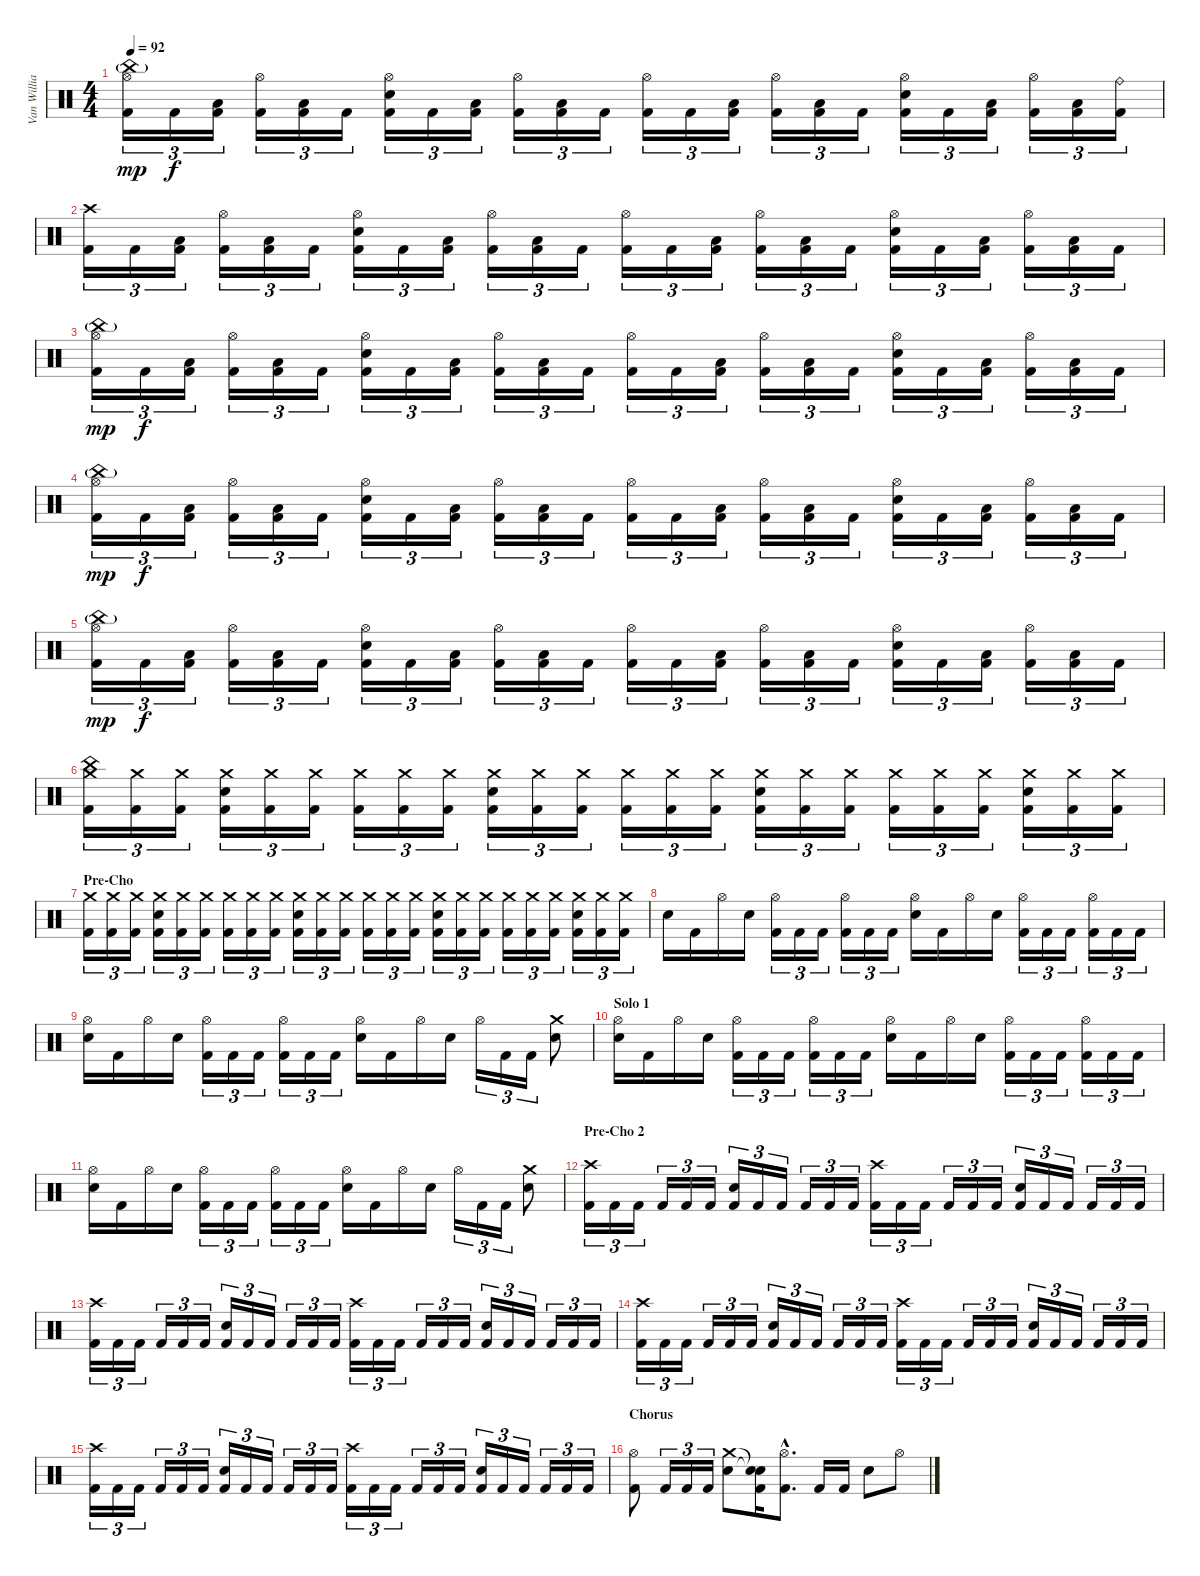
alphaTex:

\track ("Van Williams" "Van Willia") {instrument percussion}
\staff {score}
\articulation defaults
\ts (4 4)
\tempo 92
\clef neutral
\ks c
("China (hit)"{g} "Hi-Hat (open)" "Kick (hit) 2").16{tu (3 2) dy mp} "Kick (hit) 2".16{tu (3 2) dy f} ("Low Floor Tom (hit)" "Kick (hit) 2").16{tu (3 2)} ("Hi-Hat (open)" "Kick (hit) 2").16{tu (3 2)} ("Low Floor Tom (hit)" "Kick (hit) 2").16{tu (3 2)} "Kick (hit) 2".16{tu (3 2)} ("Hi-Hat (open)" "Electric Snare (hit)" "Kick (hit) 2").16{tu (3 2)} "Kick (hit) 2".16{tu (3 2)} ("Low Floor Tom (hit)" "Kick (hit) 2").16{tu (3 2)} ("Hi-Hat (open)" "Kick (hit) 2").16{tu (3 2)} ("Low Floor Tom (hit)" "Kick (hit) 2").16{tu (3 2)} "Kick (hit) 2".16{tu (3 2)} ("Hi-Hat (open)" "Kick (hit) 2").16{tu (3 2)} "Kick (hit) 2".16{tu (3 2)} ("Low Floor Tom (hit)" "Kick (hit) 2").16{tu (3 2)} ("Hi-Hat (open)" "Kick (hit) 2").16{tu (3 2)} ("Low Floor Tom (hit)" "Kick (hit) 2").16{tu (3 2)} "Kick (hit) 2".16{tu (3 2)} ("Hi-Hat (open)" "Electric Snare (hit)" "Kick (hit) 2").16{tu (3 2)} "Kick (hit) 2".16{tu (3 2)} ("Low Floor Tom (hit)" "Kick (hit) 2").16{tu (3 2)} ("Hi-Hat (open)" "Kick (hit) 2").16{tu (3 2)} ("Low Floor Tom (hit)" "Kick (hit) 2").16{tu (3 2)} ("Ride (bell)" "Kick (hit) 2").16{tu (3 2)} |
("Crash high (hit)" "Kick (hit) 2").16{tu (3 2)} "Kick (hit) 2".16{tu (3 2)} ("Low Floor Tom (hit)" "Kick (hit) 2").16{tu (3 2)} ("Hi-Hat (open)" "Kick (hit) 2").16{tu (3 2)} ("Low Floor Tom (hit)" "Kick (hit) 2").16{tu (3 2)} "Kick (hit) 2".16{tu (3 2)} ("Hi-Hat (open)" "Electric Snare (hit)" "Kick (hit) 2").16{tu (3 2)} "Kick (hit) 2".16{tu (3 2)} ("Low Floor Tom (hit)" "Kick (hit) 2").16{tu (3 2)} ("Hi-Hat (open)" "Kick (hit) 2").16{tu (3 2)} ("Low Floor Tom (hit)" "Kick (hit) 2").16{tu (3 2)} "Kick (hit) 2".16{tu (3 2)} ("Hi-Hat (open)" "Kick (hit) 2").16{tu (3 2)} "Kick (hit) 2".16{tu (3 2)} ("Low Floor Tom (hit)" "Kick (hit) 2").16{tu (3 2)} ("Hi-Hat (open)" "Kick (hit) 2").16{tu (3 2)} ("Low Floor Tom (hit)" "Kick (hit) 2").16{tu (3 2)} "Kick (hit) 2".16{tu (3 2)} ("Hi-Hat (open)" "Electric Snare (hit)" "Kick (hit) 2").16{tu (3 2)} "Kick (hit) 2".16{tu (3 2)} ("Low Floor Tom (hit)" "Kick (hit) 2").16{tu (3 2)} ("Hi-Hat (open)" "Kick (hit) 2").16{tu (3 2)} ("Low Floor Tom (hit)" "Kick (hit) 2").16{tu (3 2)} "Kick (hit) 2".16{tu (3 2)} |
("China (hit)"{g} "Hi-Hat (open)" "Kick (hit) 2").16{tu (3 2) dy mp} "Kick (hit) 2".16{tu (3 2) dy f} ("Low Floor Tom (hit)" "Kick (hit) 2").16{tu (3 2)} ("Hi-Hat (open)" "Kick (hit) 2").16{tu (3 2)} ("Low Floor Tom (hit)" "Kick (hit) 2").16{tu (3 2)} "Kick (hit) 2".16{tu (3 2)} ("Hi-Hat (open)" "Electric Snare (hit)" "Kick (hit) 2").16{tu (3 2)} "Kick (hit) 2".16{tu (3 2)} ("Low Floor Tom (hit)" "Kick (hit) 2").16{tu (3 2)} ("Hi-Hat (open)" "Kick (hit) 2").16{tu (3 2)} ("Low Floor Tom (hit)" "Kick (hit) 2").16{tu (3 2)} "Kick (hit) 2".16{tu (3 2)} ("Hi-Hat (open)" "Kick (hit) 2").16{tu (3 2)} "Kick (hit) 2".16{tu (3 2)} ("Low Floor Tom (hit)" "Kick (hit) 2").16{tu (3 2)} ("Hi-Hat (open)" "Kick (hit) 2").16{tu (3 2)} ("Low Floor Tom (hit)" "Kick (hit) 2").16{tu (3 2)} "Kick (hit) 2".16{tu (3 2)} ("Hi-Hat (open)" "Electric Snare (hit)" "Kick (hit) 2").16{tu (3 2)} "Kick (hit) 2".16{tu (3 2)} ("Low Floor Tom (hit)" "Kick (hit) 2").16{tu (3 2)} ("Hi-Hat (open)" "Kick (hit) 2").16{tu (3 2)} ("Low Floor Tom (hit)" "Kick (hit) 2").16{tu (3 2)} "Kick (hit) 2".16{tu (3 2)} |
("China (hit)"{g} "Hi-Hat (open)" "Kick (hit) 2").16{tu (3 2) dy mp} "Kick (hit) 2".16{tu (3 2) dy f} ("Low Floor Tom (hit)" "Kick (hit) 2").16{tu (3 2)} ("Hi-Hat (open)" "Kick (hit) 2").16{tu (3 2)} ("Low Floor Tom (hit)" "Kick (hit) 2").16{tu (3 2)} "Kick (hit) 2".16{tu (3 2)} ("Hi-Hat (open)" "Electric Snare (hit)" "Kick (hit) 2").16{tu (3 2)} "Kick (hit) 2".16{tu (3 2)} ("Low Floor Tom (hit)" "Kick (hit) 2").16{tu (3 2)} ("Hi-Hat (open)" "Kick (hit) 2").16{tu (3 2)} ("Low Floor Tom (hit)" "Kick (hit) 2").16{tu (3 2)} "Kick (hit) 2".16{tu (3 2)} ("Hi-Hat (open)" "Kick (hit) 2").16{tu (3 2)} "Kick (hit) 2".16{tu (3 2)} ("Low Floor Tom (hit)" "Kick (hit) 2").16{tu (3 2)} ("Hi-Hat (open)" "Kick (hit) 2").16{tu (3 2)} ("Low Floor Tom (hit)" "Kick (hit) 2").16{tu (3 2)} "Kick (hit) 2".16{tu (3 2)} ("Hi-Hat (open)" "Electric Snare (hit)" "Kick (hit) 2").16{tu (3 2)} "Kick (hit) 2".16{tu (3 2)} ("Low Floor Tom (hit)" "Kick (hit) 2").16{tu (3 2)} ("Hi-Hat (open)" "Kick (hit) 2").16{tu (3 2)} ("Low Floor Tom (hit)" "Kick (hit) 2").16{tu (3 2)} "Kick (hit) 2".16{tu (3 2)} |
("China (hit)"{g} "Hi-Hat (open)" "Kick (hit) 2").16{tu (3 2) dy mp} "Kick (hit) 2".16{tu (3 2) dy f} ("Low Floor Tom (hit)" "Kick (hit) 2").16{tu (3 2)} ("Hi-Hat (open)" "Kick (hit) 2").16{tu (3 2)} ("Low Floor Tom (hit)" "Kick (hit) 2").16{tu (3 2)} "Kick (hit) 2".16{tu (3 2)} ("Hi-Hat (open)" "Electric Snare (hit)" "Kick (hit) 2").16{tu (3 2)} "Kick (hit) 2".16{tu (3 2)} ("Low Floor Tom (hit)" "Kick (hit) 2").16{tu (3 2)} ("Hi-Hat (open)" "Kick (hit) 2").16{tu (3 2)} ("Low Floor Tom (hit)" "Kick (hit) 2").16{tu (3 2)} "Kick (hit) 2".16{tu (3 2)} ("Hi-Hat (open)" "Kick (hit) 2").16{tu (3 2)} "Kick (hit) 2".16{tu (3 2)} ("Low Floor Tom (hit)" "Kick (hit) 2").16{tu (3 2)} ("Hi-Hat (open)" "Kick (hit) 2").16{tu (3 2)} ("Low Floor Tom (hit)" "Kick (hit) 2").16{tu (3 2)} "Kick (hit) 2".16{tu (3 2)} ("Hi-Hat (open)" "Electric Snare (hit)" "Kick (hit) 2").16{tu (3 2)} "Kick (hit) 2".16{tu (3 2)} ("Low Floor Tom (hit)" "Kick (hit) 2").16{tu (3 2)} ("Hi-Hat (open)" "Kick (hit) 2").16{tu (3 2)} ("Low Floor Tom (hit)" "Kick (hit) 2").16{tu (3 2)} "Kick (hit) 2".16{tu (3 2)} |
("Crash medium (hit)" "China (hit)" "Kick (hit) 2").16{tu (3 2)} ("Crash medium (hit)" "Kick (hit) 2").16{tu (3 2)} ("Crash medium (hit)" "Kick (hit) 2").16{tu (3 2)} ("Crash medium (hit)" "Electric Snare (hit)" "Kick (hit) 2").16{tu (3 2)} ("Crash medium (hit)" "Kick (hit) 2").16{tu (3 2)} ("Crash medium (hit)" "Kick (hit) 2").16{tu (3 2)} ("Crash medium (hit)" "Kick (hit) 2").16{tu (3 2)} ("Crash medium (hit)" "Kick (hit) 2").16{tu (3 2)} ("Crash medium (hit)" "Kick (hit) 2").16{tu (3 2)} ("Crash medium (hit)" "Electric Snare (hit)" "Kick (hit) 2").16{tu (3 2)} ("Crash medium (hit)" "Kick (hit) 2").16{tu (3 2)} ("Crash medium (hit)" "Kick (hit) 2").16{tu (3 2)} ("Crash medium (hit)" "Kick (hit) 2").16{tu (3 2)} ("Crash medium (hit)" "Kick (hit) 2").16{tu (3 2)} ("Crash medium (hit)" "Kick (hit) 2").16{tu (3 2)} ("Crash medium (hit)" "Electric Snare (hit)" "Kick (hit) 2").16{tu (3 2)} ("Crash medium (hit)" "Kick (hit) 2").16{tu (3 2)} ("Crash medium (hit)" "Kick (hit) 2").16{tu (3 2)} ("Crash medium (hit)" "Kick (hit) 2").16{tu (3 2)} ("Crash medium (hit)" "Kick (hit) 2").16{tu (3 2)} ("Crash medium (hit)" "Kick (hit) 2").16{tu (3 2)} ("Crash medium (hit)" "Electric Snare (hit)" "Kick (hit) 2").16{tu (3 2)} ("Crash medium (hit)" "Kick (hit) 2").16{tu (3 2)} ("Crash medium (hit)" "Kick (hit) 2").16{tu (3 2)} |
\section ("" "Pre-Cho")
("Crash medium (hit)" "Kick (hit) 2").16{tu (3 2)} ("Crash medium (hit)" "Kick (hit) 2").16{tu (3 2)} ("Crash medium (hit)" "Kick (hit) 2").16{tu (3 2)} ("Crash medium (hit)" "Electric Snare (hit)" "Kick (hit) 2").16{tu (3 2)} ("Crash medium (hit)" "Kick (hit) 2").16{tu (3 2)} ("Crash medium (hit)" "Kick (hit) 2").16{tu (3 2)} ("Crash medium (hit)" "Kick (hit) 2").16{tu (3 2)} ("Crash medium (hit)" "Kick (hit) 2").16{tu (3 2)} ("Crash medium (hit)" "Kick (hit) 2").16{tu (3 2)} ("Crash medium (hit)" "Electric Snare (hit)" "Kick (hit) 2").16{tu (3 2)} ("Crash medium (hit)" "Kick (hit) 2").16{tu (3 2)} ("Crash medium (hit)" "Kick (hit) 2").16{tu (3 2)} ("Crash medium (hit)" "Kick (hit) 2").16{tu (3 2)} ("Crash medium (hit)" "Kick (hit) 2").16{tu (3 2)} ("Crash medium (hit)" "Kick (hit) 2").16{tu (3 2)} ("Crash medium (hit)" "Electric Snare (hit)" "Kick (hit) 2").16{tu (3 2)} ("Crash medium (hit)" "Kick (hit) 2").16{tu (3 2)} ("Crash medium (hit)" "Kick (hit) 2").16{tu (3 2)} ("Crash medium (hit)" "Kick (hit) 2").16{tu (3 2)} ("Crash medium (hit)" "Kick (hit) 2").16{tu (3 2)} ("Crash medium (hit)" "Kick (hit) 2").16{tu (3 2)} ("Crash medium (hit)" "Electric Snare (hit)" "Kick (hit) 2").16{tu (3 2)} ("Crash medium (hit)" "Kick (hit) 2").16{tu (3 2)} ("Crash medium (hit)" "Kick (hit) 2").16{tu (3 2)} |
"Electric Snare (hit)".16 "Kick (hit) 2".16 "Hi-Hat (open)".16 "Electric Snare (hit)".16 ("Hi-Hat (open)" "Kick (hit) 2").16{tu (3 2)} "Kick (hit) 2".16{tu (3 2)} "Kick (hit) 2".16{tu (3 2)} ("Hi-Hat (open)" "Kick (hit) 2").16{tu (3 2)} "Kick (hit) 2".16{tu (3 2)} "Kick (hit) 2".16{tu (3 2)} ("Hi-Hat (open)" "Electric Snare (hit)").16 "Kick (hit) 2".16 "Hi-Hat (open)".16 "Electric Snare (hit)".16 ("Hi-Hat (open)" "Kick (hit) 2").16{tu (3 2)} "Kick (hit) 2".16{tu (3 2)} "Kick (hit) 2".16{tu (3 2)} ("Hi-Hat (open)" "Kick (hit) 2").16{tu (3 2)} "Kick (hit) 2".16{tu (3 2)} "Kick (hit) 2".16{tu (3 2)} |
("Hi-Hat (open)" "Electric Snare (hit)").16 "Kick (hit) 2".16 "Hi-Hat (open)".16 "Electric Snare (hit)".16 ("Hi-Hat (open)" "Kick (hit) 2").16{tu (3 2)} "Kick (hit) 2".16{tu (3 2)} "Kick (hit) 2".16{tu (3 2)} ("Hi-Hat (open)" "Kick (hit) 2").16{tu (3 2)} "Kick (hit) 2".16{tu (3 2)} "Kick (hit) 2".16{tu (3 2)} ("Hi-Hat (open)" "Electric Snare (hit)").16 "Kick (hit) 2".16 "Hi-Hat (open)".16 "Electric Snare (hit)".16 "Hi-Hat (open)".16{tu (3 2)} "Kick (hit) 2".16{tu (3 2)} "Kick (hit) 2".16{tu (3 2)} ("Crash medium (hit)" "Electric Snare (hit)").8 |
\section ("" "Solo 1")
("Hi-Hat (open)" "Electric Snare (hit)").16 "Kick (hit) 2".16 "Hi-Hat (open)".16 "Electric Snare (hit)".16 ("Hi-Hat (open)" "Kick (hit) 2").16{tu (3 2)} "Kick (hit) 2".16{tu (3 2)} "Kick (hit) 2".16{tu (3 2)} ("Hi-Hat (open)" "Kick (hit) 2").16{tu (3 2)} "Kick (hit) 2".16{tu (3 2)} "Kick (hit) 2".16{tu (3 2)} ("Hi-Hat (open)" "Electric Snare (hit)").16 "Kick (hit) 2".16 "Hi-Hat (open)".16 "Electric Snare (hit)".16 ("Hi-Hat (open)" "Kick (hit) 2").16{tu (3 2)} "Kick (hit) 2".16{tu (3 2)} "Kick (hit) 2".16{tu (3 2)} ("Hi-Hat (open)" "Kick (hit) 2").16{tu (3 2)} "Kick (hit) 2".16{tu (3 2)} "Kick (hit) 2".16{tu (3 2)} |
("Hi-Hat (open)" "Electric Snare (hit)").16 "Kick (hit) 2".16 "Hi-Hat (open)".16 "Electric Snare (hit)".16 ("Hi-Hat (open)" "Kick (hit) 2").16{tu (3 2)} "Kick (hit) 2".16{tu (3 2)} "Kick (hit) 2".16{tu (3 2)} ("Hi-Hat (open)" "Kick (hit) 2").16{tu (3 2)} "Kick (hit) 2".16{tu (3 2)} "Kick (hit) 2".16{tu (3 2)} ("Hi-Hat (open)" "Electric Snare (hit)").16 "Kick (hit) 2".16 "Hi-Hat (open)".16 "Electric Snare (hit)".16 "Hi-Hat (open)".16{tu (3 2)} "Kick (hit) 2".16{tu (3 2)} "Kick (hit) 2".16{tu (3 2)} ("Crash medium (hit)" "Electric Snare (hit)").8 |
\section ("" "Pre-Cho 2")
("Crash high (hit)" "Kick (hit) 2").16{tu (3 2)} "Kick (hit) 2".16{tu (3 2)} "Kick (hit) 2".16{tu (3 2)} "Kick (hit) 2".16{tu (3 2)} "Kick (hit) 2".16{tu (3 2)} "Kick (hit) 2".16{tu (3 2)} ("Electric Snare (hit)" "Kick (hit) 2").16{tu (3 2)} "Kick (hit) 2".16{tu (3 2)} "Kick (hit) 2".16{tu (3 2)} "Kick (hit) 2".16{tu (3 2)} "Kick (hit) 2".16{tu (3 2)} "Kick (hit) 2".16{tu (3 2)} ("Crash high (hit)" "Kick (hit) 2").16{tu (3 2)} "Kick (hit) 2".16{tu (3 2)} "Kick (hit) 2".16{tu (3 2)} "Kick (hit) 2".16{tu (3 2)} "Kick (hit) 2".16{tu (3 2)} "Kick (hit) 2".16{tu (3 2)} ("Electric Snare (hit)" "Kick (hit) 2").16{tu (3 2)} "Kick (hit) 2".16{tu (3 2)} "Kick (hit) 2".16{tu (3 2)} "Kick (hit) 2".16{tu (3 2)} "Kick (hit) 2".16{tu (3 2)} "Kick (hit) 2".16{tu (3 2)} |
("Crash high (hit)" "Kick (hit) 2").16{tu (3 2)} "Kick (hit) 2".16{tu (3 2)} "Kick (hit) 2".16{tu (3 2)} "Kick (hit) 2".16{tu (3 2)} "Kick (hit) 2".16{tu (3 2)} "Kick (hit) 2".16{tu (3 2)} ("Electric Snare (hit)" "Kick (hit) 2").16{tu (3 2)} "Kick (hit) 2".16{tu (3 2)} "Kick (hit) 2".16{tu (3 2)} "Kick (hit) 2".16{tu (3 2)} "Kick (hit) 2".16{tu (3 2)} "Kick (hit) 2".16{tu (3 2)} ("Crash high (hit)" "Kick (hit) 2").16{tu (3 2)} "Kick (hit) 2".16{tu (3 2)} "Kick (hit) 2".16{tu (3 2)} "Kick (hit) 2".16{tu (3 2)} "Kick (hit) 2".16{tu (3 2)} "Kick (hit) 2".16{tu (3 2)} ("Electric Snare (hit)" "Kick (hit) 2").16{tu (3 2)} "Kick (hit) 2".16{tu (3 2)} "Kick (hit) 2".16{tu (3 2)} "Kick (hit) 2".16{tu (3 2)} "Kick (hit) 2".16{tu (3 2)} "Kick (hit) 2".16{tu (3 2)} |
("Crash high (hit)" "Kick (hit) 2").16{tu (3 2)} "Kick (hit) 2".16{tu (3 2)} "Kick (hit) 2".16{tu (3 2)} "Kick (hit) 2".16{tu (3 2)} "Kick (hit) 2".16{tu (3 2)} "Kick (hit) 2".16{tu (3 2)} ("Electric Snare (hit)" "Kick (hit) 2").16{tu (3 2)} "Kick (hit) 2".16{tu (3 2)} "Kick (hit) 2".16{tu (3 2)} "Kick (hit) 2".16{tu (3 2)} "Kick (hit) 2".16{tu (3 2)} "Kick (hit) 2".16{tu (3 2)} ("Crash high (hit)" "Kick (hit) 2").16{tu (3 2)} "Kick (hit) 2".16{tu (3 2)} "Kick (hit) 2".16{tu (3 2)} "Kick (hit) 2".16{tu (3 2)} "Kick (hit) 2".16{tu (3 2)} "Kick (hit) 2".16{tu (3 2)} ("Electric Snare (hit)" "Kick (hit) 2").16{tu (3 2)} "Kick (hit) 2".16{tu (3 2)} "Kick (hit) 2".16{tu (3 2)} "Kick (hit) 2".16{tu (3 2)} "Kick (hit) 2".16{tu (3 2)} "Kick (hit) 2".16{tu (3 2)} |
("Crash high (hit)" "Kick (hit) 2").16{tu (3 2)} "Kick (hit) 2".16{tu (3 2)} "Kick (hit) 2".16{tu (3 2)} "Kick (hit) 2".16{tu (3 2)} "Kick (hit) 2".16{tu (3 2)} "Kick (hit) 2".16{tu (3 2)} ("Electric Snare (hit)" "Kick (hit) 2").16{tu (3 2)} "Kick (hit) 2".16{tu (3 2)} "Kick (hit) 2".16{tu (3 2)} "Kick (hit) 2".16{tu (3 2)} "Kick (hit) 2".16{tu (3 2)} "Kick (hit) 2".16{tu (3 2)} ("Crash high (hit)" "Kick (hit) 2").16{tu (3 2)} "Kick (hit) 2".16{tu (3 2)} "Kick (hit) 2".16{tu (3 2)} "Kick (hit) 2".16{tu (3 2)} "Kick (hit) 2".16{tu (3 2)} "Kick (hit) 2".16{tu (3 2)} ("Electric Snare (hit)" "Kick (hit) 2").16{tu (3 2)} "Kick (hit) 2".16{tu (3 2)} "Kick (hit) 2".16{tu (3 2)} "Kick (hit) 2".16{tu (3 2)} "Kick (hit) 2".16{tu (3 2)} "Kick (hit) 2".16{tu (3 2)} |
\section ("" "Chorus")
("Hi-Hat (open)" "Kick (hit) 2").8 "Kick (hit) 2".16{tu (3 2)} "Kick (hit) 2".16{tu (3 2)} "Kick (hit) 2".16{tu (3 2)} ("Crash medium (hit)" "Electric Snare (hit)").8 ("Snare (hit)"{t} "Snare (hit)"{t} "Kick (hit) 2").16 ("Hi-Hat (open)"{hac} "Kick (hit) 2"{hac}).8{d} "Kick (hit) 2".16 "Kick (hit) 2".16 "Electric Snare (hit)".8 "Hi-Hat (open)".8
